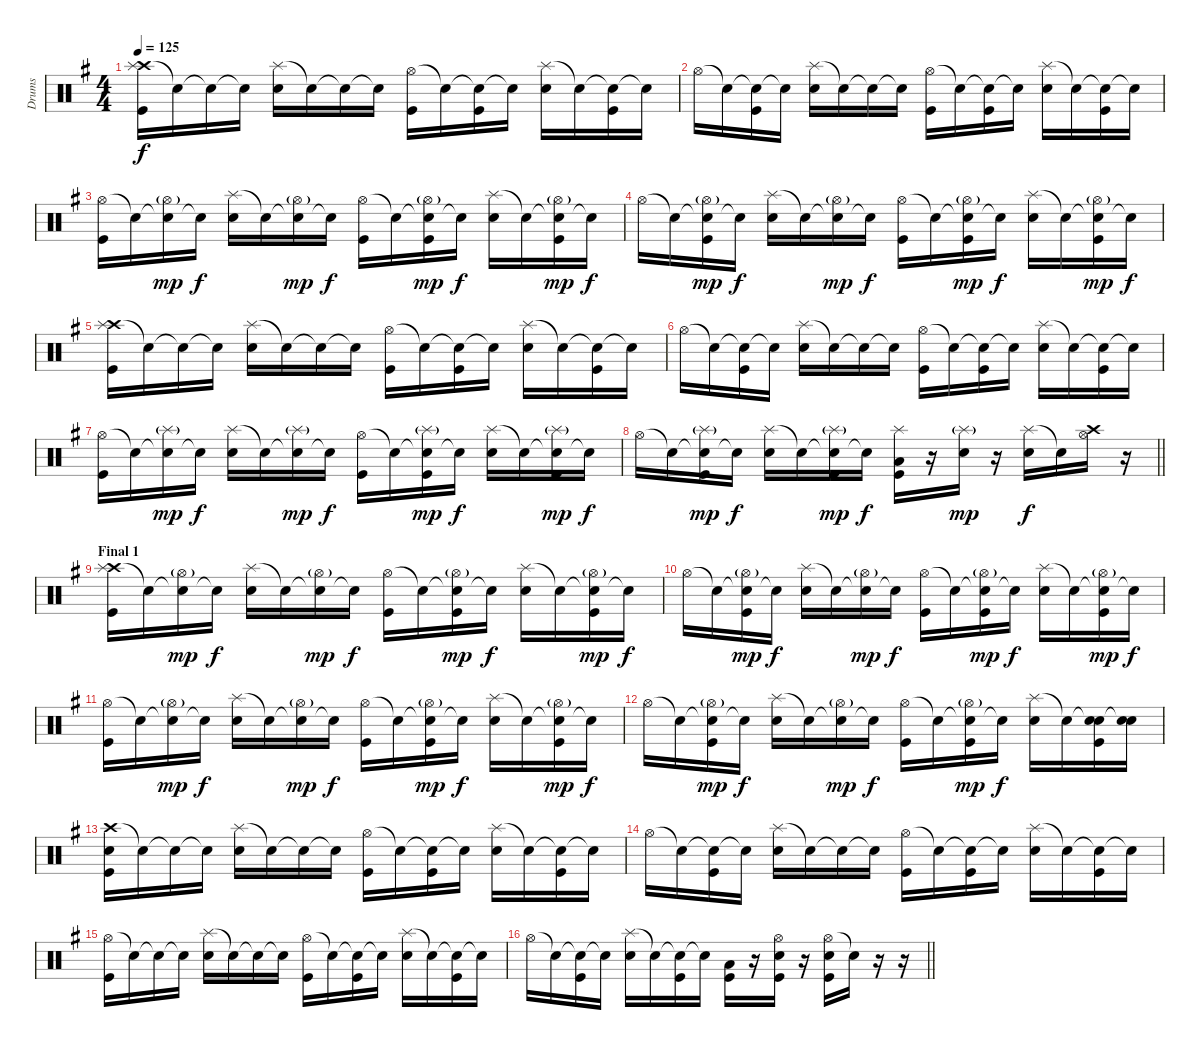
\track ("Drums" "Drums") {instrument percussion}
\staff {score}
\articulation defaults
\ts (4 4)
\tempo 125
\clef neutral
\ks g
("Crash high (hit)" "Splash (hit)" "Kick (hit)").16{dy f} "Snare (hit)"{t}.16 "Snare (hit)"{t}.16 "Snare (hit)"{t}.16 ("Splash (hit)" "Electric Snare (hit)").16 "Snare (hit)"{t}.16 "Snare (hit)"{t}.16 "Snare (hit)"{t}.16 ("Hi-Hat (open)" "Kick (hit)").16 "Snare (hit)"{t}.16 ("Snare (hit)"{t} "Kick (hit)").16 "Snare (hit)"{t}.16 ("Splash (hit)" "Electric Snare (hit)").16 "Snare (hit)"{t}.16 ("Snare (hit)"{t} "Kick (hit)").16 "Snare (hit)"{t}.16 |
"Hi-Hat (open)".16 "Snare (hit)"{t}.16 ("Snare (hit)"{t} "Kick (hit)").16 "Snare (hit)"{t}.16 ("Splash (hit)" "Electric Snare (hit)").16 "Snare (hit)"{t}.16 "Snare (hit)"{t}.16 "Snare (hit)"{t}.16 ("Hi-Hat (open)" "Kick (hit)").16 "Snare (hit)"{t}.16 ("Snare (hit)"{t} "Kick (hit)").16 "Snare (hit)"{t}.16 ("Splash (hit)" "Electric Snare (hit)").16 "Snare (hit)"{t}.16 ("Snare (hit)"{t} "Kick (hit)").16 "Snare (hit)"{t}.16 |
("Hi-Hat (open)" "Kick (hit)").16 "Snare (hit)"{t}.16 ("Snare (hit)"{t} "Hi-Hat (open)"{g}).16{dy mp} "Snare (hit)"{t}.16{dy f} ("Splash (hit)" "Electric Snare (hit)").16 "Snare (hit)"{t}.16 ("Snare (hit)"{t} "Hi-Hat (open)"{g}).16{dy mp} "Snare (hit)"{t}.16{dy f} ("Hi-Hat (open)" "Kick (hit)").16 "Snare (hit)"{t}.16 ("Snare (hit)"{t} "Hi-Hat (open)"{g} "Kick (hit)").16{dy mp} "Snare (hit)"{t}.16{dy f} ("Splash (hit)" "Electric Snare (hit)").16 "Snare (hit)"{t}.16 ("Snare (hit)"{t} "Hi-Hat (open)"{g} "Kick (hit)").16{dy mp} "Snare (hit)"{t}.16{dy f} |
"Hi-Hat (open)".16 "Snare (hit)"{t}.16 ("Snare (hit)"{t} "Hi-Hat (open)"{g} "Kick (hit)").16{dy mp} "Snare (hit)"{t}.16{dy f} ("Splash (hit)" "Electric Snare (hit)").16 "Snare (hit)"{t}.16 ("Snare (hit)"{t} "Hi-Hat (open)"{g}).16{dy mp} "Snare (hit)"{t}.16{dy f} ("Hi-Hat (open)" "Kick (hit)").16 "Snare (hit)"{t}.16 ("Snare (hit)"{t} "Hi-Hat (open)"{g} "Kick (hit)").16{dy mp} "Snare (hit)"{t}.16{dy f} ("Splash (hit)" "Electric Snare (hit)").16 "Snare (hit)"{t}.16 ("Snare (hit)"{t} "Hi-Hat (open)"{g} "Kick (hit)").16{dy mp} "Snare (hit)"{t}.16{dy f} |
("Crash high (hit)" "Splash (hit)" "Kick (hit)").16 "Snare (hit)"{t}.16 "Snare (hit)"{t}.16 "Snare (hit)"{t}.16 ("Splash (hit)" "Electric Snare (hit)").16 "Snare (hit)"{t}.16 "Snare (hit)"{t}.16 "Snare (hit)"{t}.16 ("Hi-Hat (open)" "Kick (hit)").16 "Snare (hit)"{t}.16 ("Snare (hit)"{t} "Kick (hit)").16 "Snare (hit)"{t}.16 ("Splash (hit)" "Electric Snare (hit)").16 "Snare (hit)"{t}.16 ("Snare (hit)"{t} "Kick (hit)").16 "Snare (hit)"{t}.16 |
"Hi-Hat (open)".16 "Snare (hit)"{t}.16 ("Snare (hit)"{t} "Kick (hit)").16 "Snare (hit)"{t}.16 ("Splash (hit)" "Electric Snare (hit)").16 "Snare (hit)"{t}.16 "Snare (hit)"{t}.16 "Snare (hit)"{t}.16 ("Hi-Hat (open)" "Kick (hit)").16 "Snare (hit)"{t}.16 ("Snare (hit)"{t} "Kick (hit)").16 "Snare (hit)"{t}.16 ("Splash (hit)" "Electric Snare (hit)").16 "Snare (hit)"{t}.16 ("Snare (hit)"{t} "Kick (hit)").16 "Snare (hit)"{t}.16 |
("Hi-Hat (open)" "Kick (hit)").16 "Snare (hit)"{t}.16 ("Snare (hit)"{t} "Splash (hit)"{g}).16{dy mp} "Snare (hit)"{t}.16{dy f} ("Splash (hit)" "Electric Snare (hit)").16 "Snare (hit)"{t}.16 ("Snare (hit)"{t} "Splash (hit)"{g}).16{dy mp} "Snare (hit)"{t}.16{dy f} ("Hi-Hat (open)" "Kick (hit)").16 "Snare (hit)"{t}.16 ("Snare (hit)"{t} "Splash (hit)"{g} "Kick (hit)").16{dy mp} "Snare (hit)"{t}.16{dy f} ("Splash (hit)" "Electric Snare (hit)").16 "Snare (hit)"{t}.16 ("Snare (hit)"{t} "Splash (hit)"{g} "Kick (hit)").16{dy mp} "Snare (hit)"{t}.16{dy f} |
\barLineRight lightlight "Hi-Hat (open)".16 "Snare (hit)"{t}.16
("Snare (hit)"{t} "Splash (hit)"{g} "Kick (hit)").16{dy mp} "Snare (hit)"{t}.16{dy f} ("Splash (hit)" "Electric Snare (hit)").16 "Snare (hit)"{t}.16 ("Snare (hit)"{t} "Splash (hit)"{g} "Kick (hit)").16{dy mp} "Snare (hit)"{t}.16{dy f} ("Splash (hit)" "Low Floor Tom (hit)" "Kick (hit)").16 r.16 ("Splash (hit)"{g} "Electric Snare (hit)").16{dy mp} r.16 ("Splash (hit)" "Electric Snare (hit)").16{dy f} "Snare (hit)"{t}.16 ("Hi-Hat (open)" "Crash high (hit)").16 r.16 |
\section ("" "Final 1")
("Crash high (hit)" "Splash (hit)" "Kick (hit)").16 "Snare (hit)"{t}.16 ("Snare (hit)"{t} "Hi-Hat (open)"{g}).16{dy mp} "Snare (hit)"{t}.16{dy f} ("Splash (hit)" "Electric Snare (hit)").16 "Snare (hit)"{t}.16 ("Snare (hit)"{t} "Hi-Hat (open)"{g}).16{dy mp} "Snare (hit)"{t}.16{dy f} ("Hi-Hat (open)" "Kick (hit)").16 "Snare (hit)"{t}.16 ("Snare (hit)"{t} "Hi-Hat (open)"{g} "Kick (hit)").16{dy mp} "Snare (hit)"{t}.16{dy f} ("Splash (hit)" "Electric Snare (hit)").16 "Snare (hit)"{t}.16 ("Snare (hit)"{t} "Hi-Hat (open)"{g} "Kick (hit)").16{dy mp} "Snare (hit)"{t}.16{dy f} |
"Hi-Hat (open)".16 "Snare (hit)"{t}.16 ("Snare (hit)"{t} "Hi-Hat (open)"{g} "Kick (hit)").16{dy mp} "Snare (hit)"{t}.16{dy f} ("Splash (hit)" "Electric Snare (hit)").16 "Snare (hit)"{t}.16 ("Snare (hit)"{t} "Hi-Hat (open)"{g}).16{dy mp} "Snare (hit)"{t}.16{dy f} ("Hi-Hat (open)" "Kick (hit)").16 "Snare (hit)"{t}.16 ("Snare (hit)"{t} "Hi-Hat (open)"{g} "Kick (hit)").16{dy mp} "Snare (hit)"{t}.16{dy f} ("Splash (hit)" "Electric Snare (hit)").16 "Snare (hit)"{t}.16 ("Snare (hit)"{t} "Hi-Hat (open)"{g} "Kick (hit)").16{dy mp} "Snare (hit)"{t}.16{dy f} |
("Hi-Hat (open)" "Kick (hit)").16 "Snare (hit)"{t}.16 ("Snare (hit)"{t} "Hi-Hat (open)"{g}).16{dy mp} "Snare (hit)"{t}.16{dy f} ("Splash (hit)" "Electric Snare (hit)").16 "Snare (hit)"{t}.16 ("Snare (hit)"{t} "Hi-Hat (open)"{g}).16{dy mp} "Snare (hit)"{t}.16{dy f} ("Hi-Hat (open)" "Kick (hit)").16 "Snare (hit)"{t}.16 ("Snare (hit)"{t} "Hi-Hat (open)"{g} "Kick (hit)").16{dy mp} "Snare (hit)"{t}.16{dy f} ("Splash (hit)" "Electric Snare (hit)").16 "Snare (hit)"{t}.16 ("Snare (hit)"{t} "Hi-Hat (open)"{g} "Kick (hit)").16{dy mp} "Snare (hit)"{t}.16{dy f} |
"Hi-Hat (open)".16 "Snare (hit)"{t}.16 ("Snare (hit)"{t} "Hi-Hat (open)"{g} "Kick (hit)").16{dy mp} "Snare (hit)"{t}.16{dy f} ("Splash (hit)" "Electric Snare (hit)").16 "Snare (hit)"{t}.16 ("Snare (hit)"{t} "Hi-Hat (open)"{g}).16{dy mp} "Snare (hit)"{t}.16{dy f} ("Hi-Hat (open)" "Kick (hit)").16 "Snare (hit)"{t}.16 ("Snare (hit)"{t} "Hi-Hat (open)"{g} "Kick (hit)").16{dy mp} "Snare (hit)"{t}.16{dy f} ("Splash (hit)" "Electric Snare (hit)").16 "Snare (hit)"{t}.16 ("Snare (hit)"{t} "Electric Snare (hit)" "Kick (hit)").16 ("Snare (hit)"{t} "Electric Snare (hit)").16 |
("Crash high (hit)" "Electric Snare (hit)" "Kick (hit)").16 "Snare (hit)"{t}.16 "Snare (hit)"{t}.16 "Snare (hit)"{t}.16 ("Splash (hit)" "Electric Snare (hit)").16 "Snare (hit)"{t}.16 "Snare (hit)"{t}.16 "Snare (hit)"{t}.16 ("Hi-Hat (open)" "Kick (hit)").16 "Snare (hit)"{t}.16 ("Snare (hit)"{t} "Kick (hit)").16 "Snare (hit)"{t}.16 ("Splash (hit)" "Electric Snare (hit)").16 "Snare (hit)"{t}.16 ("Snare (hit)"{t} "Kick (hit)").16 "Snare (hit)"{t}.16 |
"Hi-Hat (open)".16 "Snare (hit)"{t}.16 ("Snare (hit)"{t} "Kick (hit)").16 "Snare (hit)"{t}.16 ("Splash (hit)" "Electric Snare (hit)").16 "Snare (hit)"{t}.16 "Snare (hit)"{t}.16 "Snare (hit)"{t}.16 ("Hi-Hat (open)" "Kick (hit)").16 "Snare (hit)"{t}.16 ("Snare (hit)"{t} "Kick (hit)").16 "Snare (hit)"{t}.16 ("Splash (hit)" "Electric Snare (hit)").16 "Snare (hit)"{t}.16 ("Snare (hit)"{t} "Kick (hit)").16 "Snare (hit)"{t}.16 |
("Hi-Hat (open)" "Kick (hit)").16 "Snare (hit)"{t}.16 "Snare (hit)"{t}.16 "Snare (hit)"{t}.16 ("Splash (hit)" "Electric Snare (hit)").16 "Snare (hit)"{t}.16 "Snare (hit)"{t}.16 "Snare (hit)"{t}.16 ("Hi-Hat (open)" "Kick (hit)").16 "Snare (hit)"{t}.16 ("Snare (hit)"{t} "Kick (hit)").16 "Snare (hit)"{t}.16 ("Splash (hit)" "Electric Snare (hit)").16 "Snare (hit)"{t}.16 ("Snare (hit)"{t} "Kick (hit)").16 "Snare (hit)"{t}.16 |
\barLineRight lightlight "Hi-Hat (open)".16 "Snare (hit)"{t}.16
("Snare (hit)"{t} "Kick (hit)").16 "Snare (hit)"{t}.16 ("Splash (hit)" "Electric Snare (hit)").16 "Snare (hit)"{t}.16 ("Snare (hit)"{t} "Kick (hit)").16 "Snare (hit)"{t}.16 ("Low Floor Tom (hit)" "Kick (hit)").16 r.16 ("Hi-Hat (open)" "Electric Snare (hit)" "Kick (hit)").16 r.16 ("Hi-Hat (open)" "Electric Snare (hit)" "Kick (hit)").16 "Snare (hit)"{t}.16 r.16 r.16
